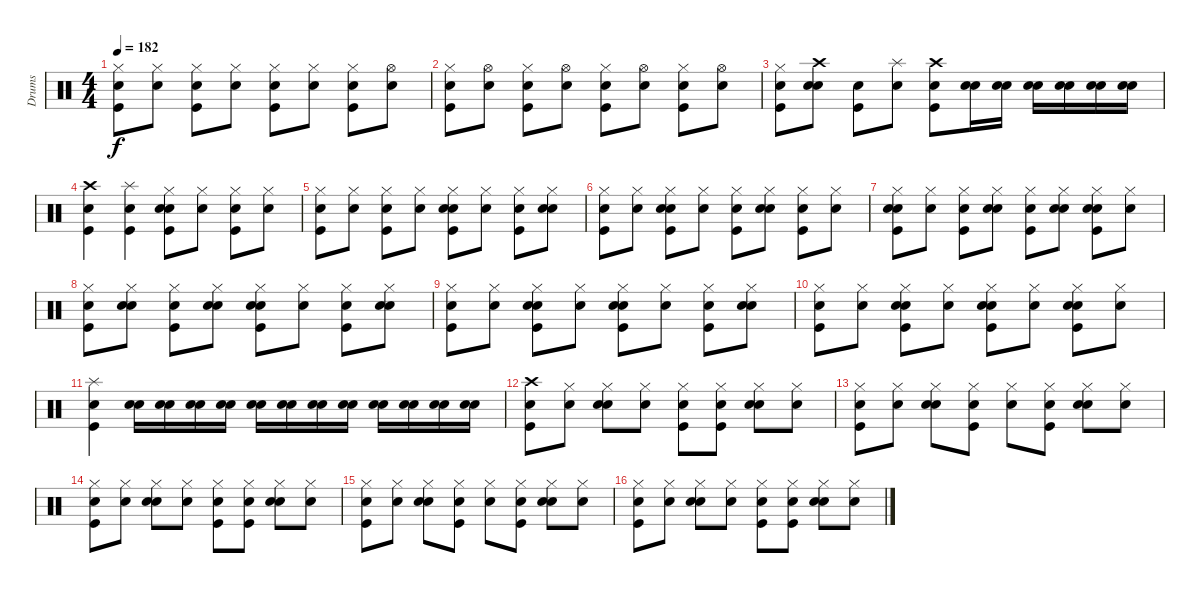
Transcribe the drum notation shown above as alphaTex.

\track ("Drums" "Drums") {instrument percussion}
\staff {score}
\articulation defaults
\ts (4 4)
\tempo 182
\clef neutral
\ks c
("Snare (hit)" "Kick (hit)" "Hi-Hat (closed)").8{dy f} ("Snare (hit)" "Hi-Hat (closed)").8 ("Snare (hit)" "Kick (hit)" "Hi-Hat (closed)").8 ("Snare (hit)" "Hi-Hat (closed)").8 ("Snare (hit)" "Hi-Hat (closed)" "Kick (hit)").8 ("Snare (hit)" "Hi-Hat (closed)").8 ("Snare (hit)" "Kick (hit)" "Hi-Hat (closed)").8 ("Snare (hit)" "Hi-Hat (open)").8 |
("Snare (hit)" "Kick (hit)" "Hi-Hat (closed)").8 ("Snare (hit)" "Hi-Hat (open)").8 ("Snare (hit)" "Kick (hit)" "Hi-Hat (closed)").8 ("Snare (hit)" "Hi-Hat (open)").8 ("Snare (hit)" "Kick (hit)" "Hi-Hat (closed)").8 ("Snare (hit)" "Hi-Hat (open)").8 ("Snare (hit)" "Kick (hit)" "Hi-Hat (closed)").8 ("Snare (hit)" "Hi-Hat (open)").8 |
("Snare (hit)" "Kick (hit)" "Hi-Hat (closed)").8 ("Snare (hit)" "Electric Snare (hit)" "Crash high (hit)").8 ("Snare (hit)" "Kick (hit)").8 ("Electric Snare (hit)" "Splash (hit)").8 ("Snare (hit)" "Kick (hit)" "Crash high (hit)").8 ("Snare (hit)" "Electric Snare (hit)").16 ("Snare (hit)" "Electric Snare (hit)").16 ("Snare (hit)" "Electric Snare (hit)").16 ("Snare (hit)" "Electric Snare (hit)").16 ("Snare (hit)" "Electric Snare (hit)").16 ("Snare (hit)" "Electric Snare (hit)").16 |
("Snare (hit)" "Kick (hit)" "Crash high (hit)").4 ("Snare (hit)" "Kick (hit)" "Splash (hit)").4 ("Snare (hit)" "Kick (hit)" "Electric Snare (hit)" "Hi-Hat (closed)").8 ("Snare (hit)" "Hi-Hat (closed)").8 ("Snare (hit)" "Kick (hit)" "Hi-Hat (closed)").8 ("Snare (hit)" "Hi-Hat (closed)").8 |
("Snare (hit)" "Kick (hit)" "Hi-Hat (closed)").8 ("Snare (hit)" "Hi-Hat (closed)").8 ("Snare (hit)" "Kick (hit)" "Hi-Hat (closed)").8 ("Snare (hit)" "Hi-Hat (closed)").8 ("Snare (hit)" "Kick (hit)" "Electric Snare (hit)" "Hi-Hat (closed)").8 ("Snare (hit)" "Hi-Hat (closed)").8 ("Snare (hit)" "Kick (hit)" "Hi-Hat (closed)").8 ("Snare (hit)" "Electric Snare (hit)" "Hi-Hat (closed)").8 |
("Snare (hit)" "Kick (hit)" "Hi-Hat (closed)").8 ("Snare (hit)" "Hi-Hat (closed)").8 ("Snare (hit)" "Kick (hit)" "Electric Snare (hit)" "Hi-Hat (closed)").8 ("Snare (hit)" "Hi-Hat (closed)").8 ("Snare (hit)" "Kick (hit)" "Hi-Hat (closed)").8 ("Snare (hit)" "Electric Snare (hit)" "Hi-Hat (closed)").8 ("Snare (hit)" "Kick (hit)" "Hi-Hat (closed)").8 ("Snare (hit)" "Hi-Hat (closed)").8 |
("Snare (hit)" "Kick (hit)" "Electric Snare (hit)" "Hi-Hat (closed)").8 ("Snare (hit)" "Hi-Hat (closed)").8 ("Snare (hit)" "Kick (hit)" "Hi-Hat (closed)").8 ("Snare (hit)" "Electric Snare (hit)" "Hi-Hat (closed)").8 ("Snare (hit)" "Kick (hit)" "Hi-Hat (closed)").8 ("Snare (hit)" "Hi-Hat (closed)" "Electric Snare (hit)").8 ("Snare (hit)" "Kick (hit)" "Electric Snare (hit)" "Hi-Hat (closed)").8 ("Snare (hit)" "Hi-Hat (closed)").8 |
("Snare (hit)" "Hi-Hat (closed)" "Kick (hit)").8 ("Snare (hit)" "Electric Snare (hit)" "Hi-Hat (closed)").8 ("Snare (hit)" "Hi-Hat (closed)" "Kick (hit)").8 ("Snare (hit)" "Electric Snare (hit)" "Hi-Hat (closed)").8 ("Snare (hit)" "Electric Snare (hit)" "Hi-Hat (closed)" "Kick (hit)").8 ("Snare (hit)" "Hi-Hat (closed)").8 ("Snare (hit)" "Hi-Hat (closed)" "Kick (hit)").8 ("Snare (hit)" "Electric Snare (hit)" "Hi-Hat (closed)").8 |
("Snare (hit)" "Hi-Hat (closed)" "Kick (hit)").8 ("Snare (hit)" "Hi-Hat (closed)").8 ("Snare (hit)" "Electric Snare (hit)" "Hi-Hat (closed)" "Kick (hit)").8 ("Snare (hit)" "Hi-Hat (closed)").8 ("Snare (hit)" "Electric Snare (hit)" "Hi-Hat (closed)" "Kick (hit)").8 ("Snare (hit)" "Hi-Hat (closed)").8 ("Snare (hit)" "Hi-Hat (closed)" "Kick (hit)").8 ("Snare (hit)" "Electric Snare (hit)" "Hi-Hat (closed)").8 |
("Snare (hit)" "Hi-Hat (closed)" "Kick (hit)").8 ("Snare (hit)" "Hi-Hat (closed)").8 ("Snare (hit)" "Electric Snare (hit)" "Hi-Hat (closed)" "Kick (hit)").8 ("Snare (hit)" "Hi-Hat (closed)").8 ("Snare (hit)" "Electric Snare (hit)" "Hi-Hat (closed)" "Kick (hit)").8 ("Snare (hit)" "Hi-Hat (closed)").8 ("Snare (hit)" "Electric Snare (hit)" "Hi-Hat (closed)" "Kick (hit)").8 ("Snare (hit)" "Hi-Hat (closed)").8 |
("Snare (hit)" "Splash (hit)" "Kick (hit)").4 ("Snare (hit)" "Electric Snare (hit)").16 ("Snare (hit)" "Electric Snare (hit)").16 ("Snare (hit)" "Electric Snare (hit)").16 ("Snare (hit)" "Electric Snare (hit)").16 ("Snare (hit)" "Electric Snare (hit)").16 ("Snare (hit)" "Electric Snare (hit)").16 ("Snare (hit)" "Electric Snare (hit)").16 ("Snare (hit)" "Electric Snare (hit)").16 ("Snare (hit)" "Electric Snare (hit)").16 ("Snare (hit)" "Electric Snare (hit)").16 ("Snare (hit)" "Electric Snare (hit)").16 ("Snare (hit)" "Electric Snare (hit)").16 |
("Snare (hit)" "Kick (hit)" "Crash high (hit)").8 ("Snare (hit)" "Hi-Hat (closed)").8 ("Snare (hit)" "Electric Snare (hit)" "Hi-Hat (closed)").8 ("Snare (hit)" "Hi-Hat (closed)").8 ("Snare (hit)" "Kick (hit)" "Hi-Hat (closed)").8 ("Snare (hit)" "Kick (hit)" "Hi-Hat (closed)").8 ("Snare (hit)" "Electric Snare (hit)" "Hi-Hat (closed)").8 ("Snare (hit)" "Hi-Hat (closed)").8 |
("Snare (hit)" "Kick (hit)" "Hi-Hat (closed)").8 ("Snare (hit)" "Hi-Hat (closed)").8 ("Snare (hit)" "Electric Snare (hit)" "Hi-Hat (closed)").8 ("Snare (hit)" "Kick (hit)" "Hi-Hat (closed)").8 ("Snare (hit)" "Hi-Hat (closed)").8 ("Snare (hit)" "Kick (hit)" "Hi-Hat (closed)").8 ("Snare (hit)" "Electric Snare (hit)" "Hi-Hat (closed)").8 ("Snare (hit)" "Hi-Hat (closed)").8 |
("Snare (hit)" "Kick (hit)" "Hi-Hat (closed)").8 ("Snare (hit)" "Hi-Hat (closed)").8 ("Snare (hit)" "Electric Snare (hit)" "Hi-Hat (closed)").8 ("Snare (hit)" "Hi-Hat (closed)").8 ("Snare (hit)" "Kick (hit)" "Hi-Hat (closed)").8 ("Snare (hit)" "Kick (hit)" "Hi-Hat (closed)").8 ("Snare (hit)" "Electric Snare (hit)" "Hi-Hat (closed)").8 ("Snare (hit)" "Hi-Hat (closed)").8 |
("Snare (hit)" "Kick (hit)" "Hi-Hat (closed)").8 ("Snare (hit)" "Hi-Hat (closed)").8 ("Snare (hit)" "Electric Snare (hit)" "Hi-Hat (closed)").8 ("Snare (hit)" "Kick (hit)" "Hi-Hat (closed)").8 ("Snare (hit)" "Hi-Hat (closed)").8 ("Snare (hit)" "Kick (hit)" "Hi-Hat (closed)").8 ("Snare (hit)" "Electric Snare (hit)" "Hi-Hat (closed)").8 ("Snare (hit)" "Hi-Hat (closed)").8 |
("Snare (hit)" "Kick (hit)" "Hi-Hat (closed)").8 ("Snare (hit)" "Hi-Hat (closed)").8 ("Snare (hit)" "Electric Snare (hit)" "Hi-Hat (closed)").8 ("Snare (hit)" "Hi-Hat (closed)").8 ("Snare (hit)" "Kick (hit)" "Hi-Hat (closed)").8 ("Snare (hit)" "Kick (hit)" "Hi-Hat (closed)").8 ("Snare (hit)" "Electric Snare (hit)" "Hi-Hat (closed)").8 ("Snare (hit)" "Hi-Hat (closed)").8
